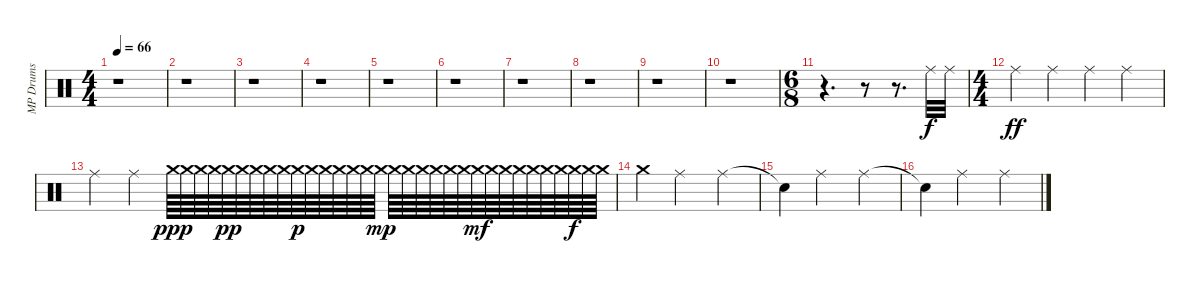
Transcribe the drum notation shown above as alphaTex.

\track ("MP Drums" "MP Drums") {instrument percussion}
\staff {score}
\articulation defaults
\ts (4 4)
\tempo 66
\clef neutral
\ks c
r.1{dy ff} |
r.1 |
r.1 |
r.1 |
r.1 |
r.1 |
r.1 |
r.1 |
r.1 |
r.1 |
\ts (6 8)
r.4{d} r.8 r.8{d} "Ride (middle)".32{dy f} "Ride (middle)".32 |
\ts (4 4)
"Ride (middle)".4{dy ff} "Ride (middle)".4 "Ride (middle)".4 "Ride (middle)".4 |
"Ride (middle)".4 "Ride (middle)".4 "Crash medium (hit)".64{dy ppp} "Crash medium (hit)".64 "Crash medium (hit)".64 "Crash medium (hit)".64 "Crash medium (hit)".64{dy pp} "Crash medium (hit)".64 "Crash medium (hit)".64 "Crash medium (hit)".64 "Crash medium (hit)".64 "Crash medium (hit)".64{dy p} "Crash medium (hit)".64 "Crash medium (hit)".64 "Crash medium (hit)".64 "Crash medium (hit)".64 "Crash medium (hit)".64 "Crash medium (hit)".64{dy mp} "Crash medium (hit)".64 "Crash medium (hit)".64 "Crash medium (hit)".64 "Crash medium (hit)".64 "Crash medium (hit)".64 "Crash medium (hit)".64 "Crash medium (hit)".64{dy mf} "Crash medium (hit)".64 "Crash medium (hit)".64 "Crash medium (hit)".64 "Crash medium (hit)".64 "Crash medium (hit)".64 "Crash medium (hit)".64 "Crash medium (hit)".64{dy f} "Crash medium (hit)".64 "Crash medium (hit)".64 |
"Crash medium (hit)".4 "Ride (middle)".2 "Ride (middle)".4 |
"Snare (hit)"{t}.4 "Ride (middle)".2 "Ride (middle)".4 |
"Snare (hit)"{t}.4 "Ride (middle)".2 "Ride (middle)".4
